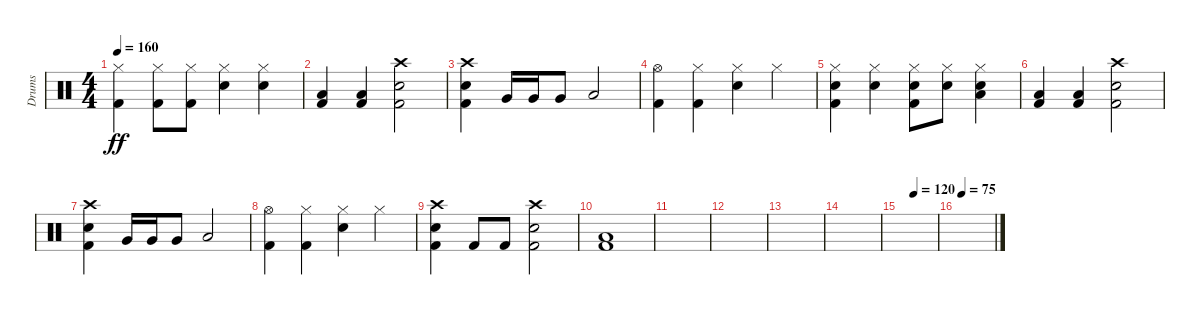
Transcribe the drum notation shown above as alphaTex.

\track ("Drums" "Drums") {instrument percussion}
\staff {score}
\articulation defaults
\ts (4 4)
\tempo 160
\clef neutral
\ks c
("Hi-Hat (closed)" "Kick (hit) 2").4{dy ff} ("Hi-Hat (closed)" "Kick (hit) 2").8 ("Hi-Hat (closed)" "Kick (hit) 2").8 ("Hi-Hat (closed)" "Snare (hit) 2").4 ("Hi-Hat (closed)" "Snare (hit) 2").4 |
("Low Floor Tom (hit)" "Kick (hit) 2").4 ("Low Floor Tom (hit)" "Kick (hit) 2").4 ("Kick (hit) 2" "Crash high (hit)" "Snare (hit) 2").2 |
("Kick (hit) 2" "Crash high (hit)" "Snare (hit) 2").4 "Very Low Tom (hit)".16 "Very Low Tom (hit)".16 "Very Low Tom (hit)".8 "Low Floor Tom (hit)".2 |
("Hi-Hat (open)" "Kick (hit) 2").4 ("Hi-Hat (closed)" "Kick (hit) 2").4 ("Hi-Hat (closed)" "Snare (hit) 2").4 "Hi-Hat (closed)".4 |
("Hi-Hat (closed)" "Snare (hit) 2" "Kick (hit) 2").4 ("Hi-Hat (closed)" "Snare (hit) 2").4 ("Hi-Hat (closed)" "Snare (hit) 2" "Kick (hit) 2").8 ("Hi-Hat (closed)" "Snare (hit) 2").8 ("Hi-Hat (closed)" "Snare (hit) 2" "Low Floor Tom (hit)").4 |
("Low Floor Tom (hit)" "Kick (hit) 2").4 ("Low Floor Tom (hit)" "Kick (hit) 2").4 ("Kick (hit) 2" "Crash high (hit)" "Snare (hit) 2").2 |
("Kick (hit) 2" "Crash high (hit)" "Snare (hit) 2").4 "Very Low Tom (hit)".16 "Very Low Tom (hit)".16 "Very Low Tom (hit)".8 "Low Floor Tom (hit)".2 |
("Hi-Hat (open)" "Kick (hit) 2").4 ("Hi-Hat (closed)" "Kick (hit) 2").4 ("Hi-Hat (closed)" "Snare (hit) 2").4 "Hi-Hat (closed)".4 |
("Snare (hit) 2" "Crash high (hit)" "Kick (hit) 2").4 "Kick (hit) 2".8 "Kick (hit) 2".8 ("Crash high (hit)" "Snare (hit) 2" "Kick (hit) 2").2 |
("Low Floor Tom (hit)" "Kick (hit) 2").1 |
|
|
|
|
\tempo (120 0.375)
|
\tempo (75 0.125)
